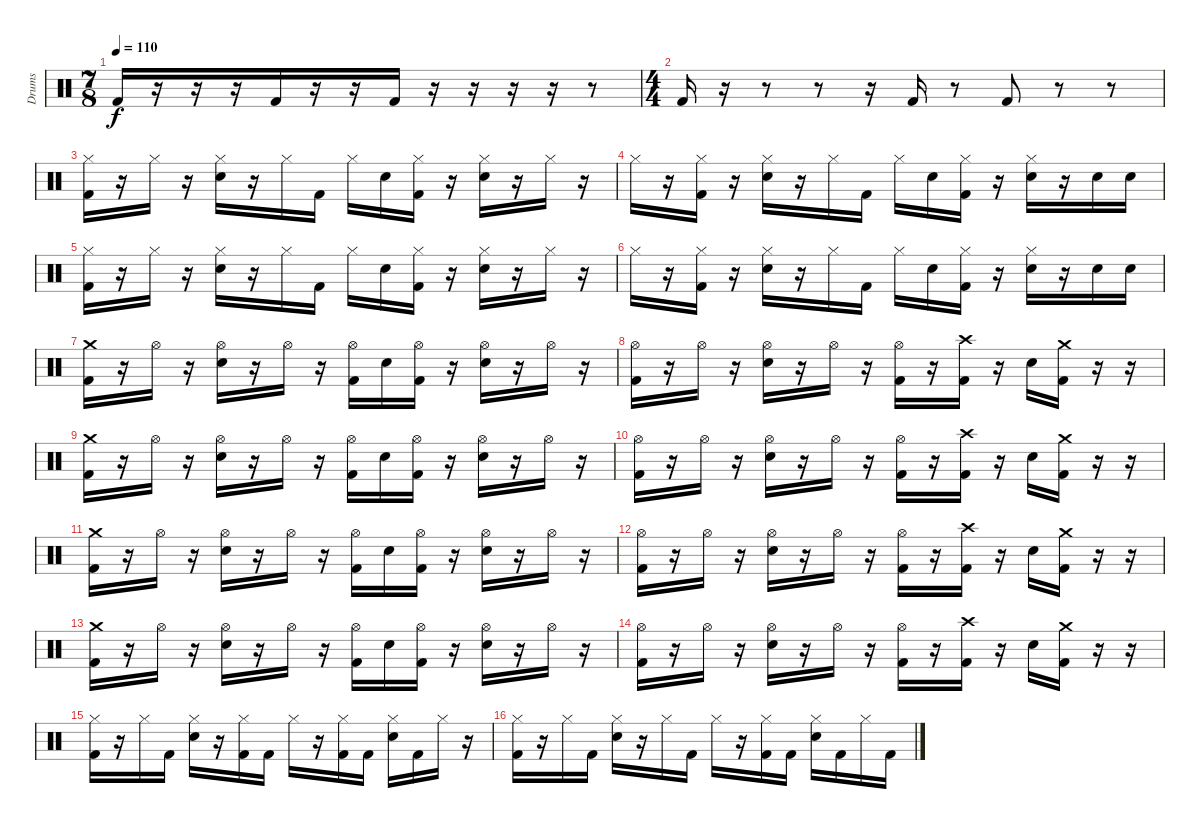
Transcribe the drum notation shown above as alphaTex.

\track ("Drums" "Drums") {instrument percussion}
\staff {score}
\articulation defaults
\ts (7 8)
\tempo 110
\clef neutral
\ks c "Kick (hit) 2".16{dy f}
r.16 r.16 r.16 "Kick (hit) 2".16 r.16 r.16 "Kick (hit) 2".16 r.16 r.16 r.16 r.16 r.8 |
\ts (4 4)
"Kick (hit) 2".16 r.16 r.8 r.8 r.16 "Kick (hit) 2".16 r.8 "Kick (hit) 2".8 r.8 r.8 |
("Hi-Hat (closed)" "Kick (hit) 2").16 r.16 "Hi-Hat (closed)".16 r.16 ("Hi-Hat (closed)" "Electric Snare (hit)").16 r.16 "Hi-Hat (closed)".16 "Kick (hit) 2".16 "Hi-Hat (closed)".16 "Electric Snare (hit)".16 ("Hi-Hat (closed)" "Kick (hit) 2").16 r.16 ("Hi-Hat (closed)" "Electric Snare (hit)").16 r.16 "Hi-Hat (closed)".16 r.16 |
"Hi-Hat (closed)".16 r.16 ("Hi-Hat (closed)" "Kick (hit) 2").16 r.16 ("Hi-Hat (closed)" "Electric Snare (hit)").16 r.16 "Hi-Hat (closed)".16 "Kick (hit) 2".16 "Hi-Hat (closed)".16 "Electric Snare (hit)".16 ("Hi-Hat (closed)" "Kick (hit) 2").16 r.16 ("Hi-Hat (closed)" "Electric Snare (hit)").16 r.16 "Electric Snare (hit)".16 "Electric Snare (hit)".16 |
("Hi-Hat (closed)" "Kick (hit) 2").16 r.16 "Hi-Hat (closed)".16 r.16 ("Hi-Hat (closed)" "Electric Snare (hit)").16 r.16 "Hi-Hat (closed)".16 "Kick (hit) 2".16 "Hi-Hat (closed)".16 "Electric Snare (hit)".16 ("Hi-Hat (closed)" "Kick (hit) 2").16 r.16 ("Hi-Hat (closed)" "Electric Snare (hit)").16 r.16 "Hi-Hat (closed)".16 r.16 |
"Hi-Hat (closed)".16 r.16 ("Hi-Hat (closed)" "Kick (hit) 2").16 r.16 ("Hi-Hat (closed)" "Electric Snare (hit)").16 r.16 "Hi-Hat (closed)".16 "Kick (hit) 2".16 "Hi-Hat (closed)".16 "Electric Snare (hit)".16 ("Hi-Hat (closed)" "Kick (hit) 2").16 r.16 ("Hi-Hat (closed)" "Electric Snare (hit)").16 r.16 "Electric Snare (hit)".16 "Electric Snare (hit)".16 |
("Crash medium (hit)" "Kick (hit) 2").16 r.16 "Hi-Hat (open)".16 r.16 ("Hi-Hat (open)" "Electric Snare (hit)").16 r.16 "Hi-Hat (open)".16 r.16 ("Hi-Hat (open)" "Kick (hit) 2").16 "Electric Snare (hit)".16 ("Hi-Hat (open)" "Kick (hit) 2").16 r.16 ("Hi-Hat (open)" "Electric Snare (hit)").16 r.16 "Hi-Hat (open)".16 r.16 |
("Hi-Hat (open)" "Kick (hit) 2").16 r.16 "Hi-Hat (open)".16 r.16 ("Hi-Hat (open)" "Electric Snare (hit)").16 r.16 "Hi-Hat (open)".16 r.16 ("Hi-Hat (open)" "Kick (hit) 2").16 r.16 ("Crash high (hit)" "Kick (hit) 2").16 r.16 "Electric Snare (hit)".16 ("Crash medium (hit)" "Kick (hit) 2").16 r.16 r.16 |
("Crash medium (hit)" "Kick (hit) 2").16 r.16 "Hi-Hat (open)".16 r.16 ("Hi-Hat (open)" "Electric Snare (hit)").16 r.16 "Hi-Hat (open)".16 r.16 ("Hi-Hat (open)" "Kick (hit) 2").16 "Electric Snare (hit)".16 ("Hi-Hat (open)" "Kick (hit) 2").16 r.16 ("Hi-Hat (open)" "Electric Snare (hit)").16 r.16 "Hi-Hat (open)".16 r.16 |
("Hi-Hat (open)" "Kick (hit) 2").16 r.16 "Hi-Hat (open)".16 r.16 ("Hi-Hat (open)" "Electric Snare (hit)").16 r.16 "Hi-Hat (open)".16 r.16 ("Hi-Hat (open)" "Kick (hit) 2").16 r.16 ("Crash high (hit)" "Kick (hit) 2").16 r.16 "Electric Snare (hit)".16 ("Crash medium (hit)" "Kick (hit) 2").16 r.16 r.16 |
("Crash medium (hit)" "Kick (hit) 2").16 r.16 "Hi-Hat (open)".16 r.16 ("Hi-Hat (open)" "Electric Snare (hit)").16 r.16 "Hi-Hat (open)".16 r.16 ("Hi-Hat (open)" "Kick (hit) 2").16 "Electric Snare (hit)".16 ("Hi-Hat (open)" "Kick (hit) 2").16 r.16 ("Hi-Hat (open)" "Electric Snare (hit)").16 r.16 "Hi-Hat (open)".16 r.16 |
("Hi-Hat (open)" "Kick (hit) 2").16 r.16 "Hi-Hat (open)".16 r.16 ("Hi-Hat (open)" "Electric Snare (hit)").16 r.16 "Hi-Hat (open)".16 r.16 ("Hi-Hat (open)" "Kick (hit) 2").16 r.16 ("Crash high (hit)" "Kick (hit) 2").16 r.16 "Electric Snare (hit)".16 ("Crash medium (hit)" "Kick (hit) 2").16 r.16 r.16 |
("Crash medium (hit)" "Kick (hit) 2").16 r.16 "Hi-Hat (open)".16 r.16 ("Hi-Hat (open)" "Electric Snare (hit)").16 r.16 "Hi-Hat (open)".16 r.16 ("Hi-Hat (open)" "Kick (hit) 2").16 "Electric Snare (hit)".16 ("Hi-Hat (open)" "Kick (hit) 2").16 r.16 ("Hi-Hat (open)" "Electric Snare (hit)").16 r.16 "Hi-Hat (open)".16 r.16 |
("Hi-Hat (open)" "Kick (hit) 2").16 r.16 "Hi-Hat (open)".16 r.16 ("Hi-Hat (open)" "Electric Snare (hit)").16 r.16 "Hi-Hat (open)".16 r.16 ("Hi-Hat (open)" "Kick (hit) 2").16 r.16 ("Crash high (hit)" "Kick (hit) 2").16 r.16 "Electric Snare (hit)".16 ("Crash medium (hit)" "Kick (hit) 2").16 r.16 r.16 |
("Hi-Hat (closed)" "Kick (hit) 2").16 r.16 "Hi-Hat (closed)".16 "Kick (hit) 2".16 ("Hi-Hat (closed)" "Electric Snare (hit)").16 r.16 ("Hi-Hat (closed)" "Kick (hit) 2").16 "Kick (hit) 2".16 "Hi-Hat (closed)".16 r.16 ("Hi-Hat (closed)" "Kick (hit) 2").16 "Kick (hit) 2".16 ("Hi-Hat (closed)" "Electric Snare (hit)").16 "Kick (hit) 2".16 "Hi-Hat (closed)".16 r.16 |
("Hi-Hat (closed)" "Kick (hit) 2").16 r.16 "Hi-Hat (closed)".16 "Kick (hit) 2".16 ("Hi-Hat (closed)" "Electric Snare (hit)").16 r.16 "Hi-Hat (closed)".16 "Kick (hit) 2".16 "Hi-Hat (closed)".16 r.16 ("Hi-Hat (closed)" "Kick (hit) 2").16 "Kick (hit) 2".16 ("Hi-Hat (closed)" "Electric Snare (hit)").16 "Kick (hit) 2".16 "Hi-Hat (closed)".16 "Kick (hit) 2".16
